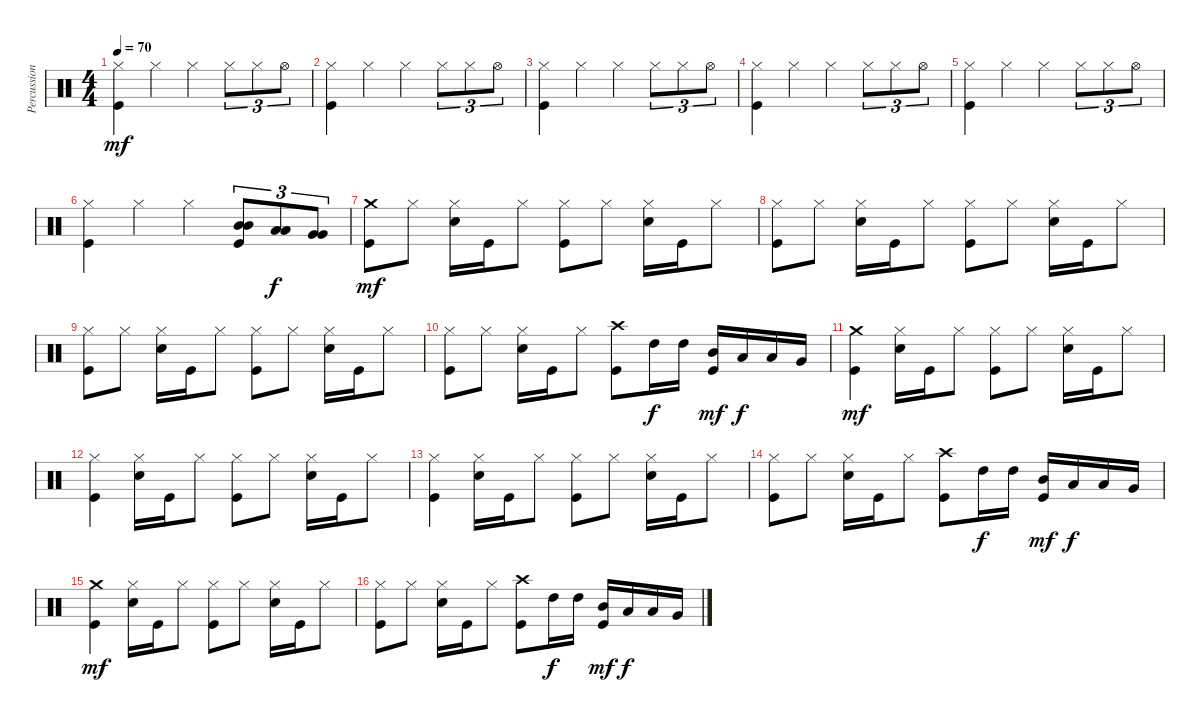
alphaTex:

\track ("Percussion" "Percussion") {instrument percussion}
\staff {score}
\articulation defaults
\ts (4 4)
\tempo 70
\clef neutral
\ks c
("Hi-Hat (closed)" "Kick (hit)").4{dy mf} "Hi-Hat (closed)".4 "Hi-Hat (closed)".4 "Hi-Hat (closed)".8{tu (3 2)} "Hi-Hat (closed)".8{tu (3 2)} "Hi-Hat (open)".8{tu (3 2)} |
("Hi-Hat (closed)" "Kick (hit)").4 "Hi-Hat (closed)".4 "Hi-Hat (closed)".4 "Hi-Hat (closed)".8{tu (3 2)} "Hi-Hat (closed)".8{tu (3 2)} "Hi-Hat (open)".8{tu (3 2)} |
("Hi-Hat (closed)" "Kick (hit)").4 "Hi-Hat (closed)".4 "Hi-Hat (closed)".4 "Hi-Hat (closed)".8{tu (3 2)} "Hi-Hat (closed)".8{tu (3 2)} "Hi-Hat (open)".8{tu (3 2)} |
("Hi-Hat (closed)" "Kick (hit)").4 "Hi-Hat (closed)".4 "Hi-Hat (closed)".4 "Hi-Hat (closed)".8{tu (3 2)} "Hi-Hat (closed)".8{tu (3 2)} "Hi-Hat (open)".8{tu (3 2)} |
("Hi-Hat (closed)" "Kick (hit)").4 "Hi-Hat (closed)".4 "Hi-Hat (closed)".4 "Hi-Hat (closed)".8{tu (3 2)} "Hi-Hat (closed)".8{tu (3 2)} "Hi-Hat (open)".8{tu (3 2)} |
("Hi-Hat (closed)" "Kick (hit)").4 "Hi-Hat (closed)".4 "Hi-Hat (closed)".4 ("Mid Tom (hit)" "Mid Tom (hit)" "Kick (hit)").8{tu (3 2)} ("Low Tom (hit)" "Low Tom (hit)").8{tu (3 2) dy f} ("Very Low Tom (hit)" "Very Low Tom (hit)").8{tu (3 2)} |
("Crash medium (hit)" "Kick (hit)").8{dy mf} "Hi-Hat (closed)".8 ("Hi-Hat (closed)" "Snare (hit) 2").16 "Kick (hit)".16 "Hi-Hat (closed)".8 ("Hi-Hat (closed)" "Kick (hit)").8 "Hi-Hat (closed)".8 ("Hi-Hat (closed)" "Snare (hit) 2").16 "Kick (hit)".16 "Hi-Hat (closed)".8 |
("Hi-Hat (closed)" "Kick (hit)").8 "Hi-Hat (closed)".8 ("Hi-Hat (closed)" "Snare (hit) 2").16 "Kick (hit)".16 "Hi-Hat (closed)".8 ("Hi-Hat (closed)" "Kick (hit)").8 "Hi-Hat (closed)".8 ("Hi-Hat (closed)" "Snare (hit) 2").16 "Kick (hit)".16 "Hi-Hat (closed)".8 |
("Hi-Hat (closed)" "Kick (hit)").8 "Hi-Hat (closed)".8 ("Hi-Hat (closed)" "Snare (hit) 2").16 "Kick (hit)".16 "Hi-Hat (closed)".8 ("Hi-Hat (closed)" "Kick (hit)").8 "Hi-Hat (closed)".8 ("Hi-Hat (closed)" "Snare (hit) 2").16 "Kick (hit)".16 "Hi-Hat (closed)".8 |
("Hi-Hat (closed)" "Kick (hit)").8 "Hi-Hat (closed)".8 ("Hi-Hat (closed)" "Snare (hit) 2").16 "Kick (hit)".16 "Hi-Hat (closed)".8 ("Crash high (hit)" "Kick (hit)").8 "High Tom (hit)".16{dy f} "High Tom (hit)".16 ("Mid Tom (hit)" "Kick (hit)").16{dy mf} "Low Tom (hit)".16{dy f} "Low Tom (hit)".16 "Very Low Tom (hit)".16 |
("Crash medium (hit)" "Kick (hit)").4{dy mf} ("Hi-Hat (closed)" "Snare (hit) 2").16 "Kick (hit)".16 "Hi-Hat (closed)".8 ("Hi-Hat (closed)" "Kick (hit)").8 "Hi-Hat (closed)".8 ("Hi-Hat (closed)" "Snare (hit) 2").16 "Kick (hit)".16 "Hi-Hat (closed)".8 |
("Hi-Hat (closed)" "Kick (hit)").4 ("Hi-Hat (closed)" "Snare (hit) 2").16 "Kick (hit)".16 "Hi-Hat (closed)".8 ("Hi-Hat (closed)" "Kick (hit)").8 "Hi-Hat (closed)".8 ("Hi-Hat (closed)" "Snare (hit) 2").16 "Kick (hit)".16 "Hi-Hat (closed)".8 |
("Hi-Hat (closed)" "Kick (hit)").4 ("Hi-Hat (closed)" "Snare (hit) 2").16 "Kick (hit)".16 "Hi-Hat (closed)".8 ("Hi-Hat (closed)" "Kick (hit)").8 "Hi-Hat (closed)".8 ("Hi-Hat (closed)" "Snare (hit) 2").16 "Kick (hit)".16 "Hi-Hat (closed)".8 |
("Hi-Hat (closed)" "Kick (hit)").8 "Hi-Hat (closed)".8 ("Hi-Hat (closed)" "Snare (hit) 2").16 "Kick (hit)".16 "Hi-Hat (closed)".8 ("Crash high (hit)" "Kick (hit)").8 "High Tom (hit)".16{dy f} "High Tom (hit)".16 ("Mid Tom (hit)" "Kick (hit)").16{dy mf} "Low Tom (hit)".16{dy f} "Low Tom (hit)".16 "Very Low Tom (hit)".16 |
("Crash medium (hit)" "Kick (hit)").4{dy mf} ("Hi-Hat (closed)" "Snare (hit) 2").16 "Kick (hit)".16 "Hi-Hat (closed)".8 ("Hi-Hat (closed)" "Kick (hit)").8 "Hi-Hat (closed)".8 ("Hi-Hat (closed)" "Snare (hit) 2").16 "Kick (hit)".16 "Hi-Hat (closed)".8 |
("Hi-Hat (closed)" "Kick (hit)").8 "Hi-Hat (closed)".8 ("Hi-Hat (closed)" "Snare (hit) 2").16 "Kick (hit)".16 "Hi-Hat (closed)".8 ("Crash high (hit)" "Kick (hit)").8 "High Tom (hit)".16{dy f} "High Tom (hit)".16 ("Mid Tom (hit)" "Kick (hit)").16{dy mf} "Low Tom (hit)".16{dy f} "Low Tom (hit)".16 "Very Low Tom (hit)".16
